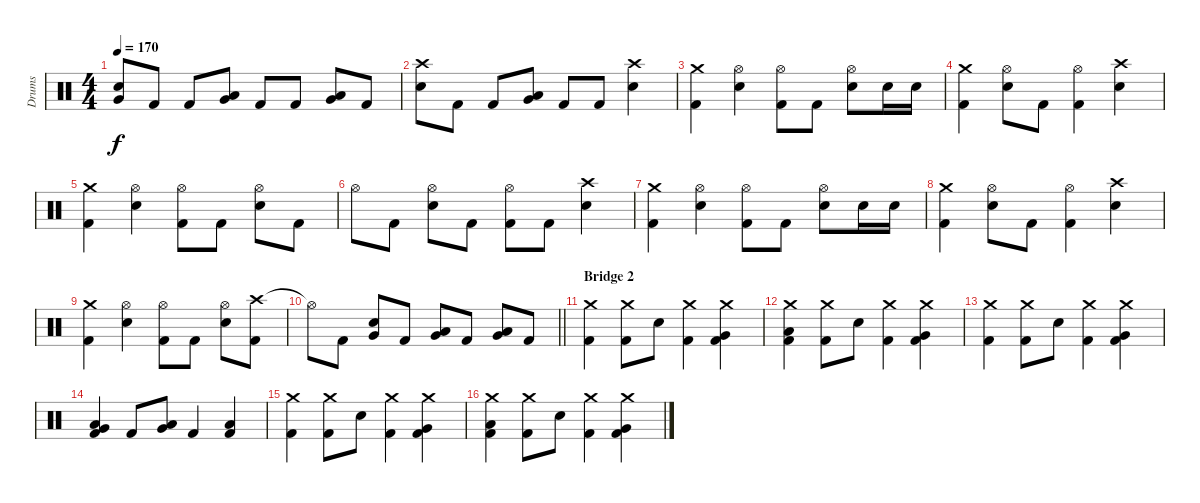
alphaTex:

\track ("Drums" "Drums") {instrument percussion}
\staff {score}
\articulation defaults
\ts (4 4)
\tempo 170
\clef neutral
\ks c
("Very Low Tom (hit)" "Electric Snare (hit)").8{dy f} "Kick (hit) 2".8 "Kick (hit) 2".8 ("Very Low Tom (hit)" "Low Tom (hit)").8 "Kick (hit) 2".8 "Kick (hit) 2".8 ("Very Low Tom (hit)" "Low Floor Tom (hit)").8 "Kick (hit) 2".8 |
("Crash high (hit)" "Electric Snare (hit)").8 "Kick (hit) 2".8 "Kick (hit) 2".8 ("Very Low Tom (hit)" "Low Tom (hit)").8 "Kick (hit) 2".8 "Kick (hit) 2".8 ("Crash high (hit)" "Electric Snare (hit)").4 |
("Crash medium (hit)" "Kick (hit) 2").4 ("Hi-Hat (open)" "Electric Snare (hit)").4 ("Hi-Hat (open)" "Kick (hit) 2").8 "Kick (hit) 2".8 ("Hi-Hat (open)" "Electric Snare (hit)").8 "Electric Snare (hit)".16 "Electric Snare (hit)".16 |
("Crash medium (hit)" "Kick (hit) 2").4 ("Hi-Hat (open)" "Electric Snare (hit)").8 "Kick (hit) 2".8 ("Hi-Hat (open)" "Kick (hit) 2").4 ("Crash high (hit)" "Electric Snare (hit)").4 |
("Crash medium (hit)" "Kick (hit) 2").4 ("Hi-Hat (open)" "Electric Snare (hit)").4 ("Hi-Hat (open)" "Kick (hit) 2").8 "Kick (hit) 2".8 ("Hi-Hat (open)" "Electric Snare (hit)").8 "Kick (hit) 2".8 |
"Hi-Hat (open)".8 "Kick (hit) 2".8 ("Hi-Hat (open)" "Electric Snare (hit)").8 "Kick (hit) 2".8 ("Hi-Hat (open)" "Kick (hit) 2").8 "Kick (hit) 2".8 ("Crash high (hit)" "Electric Snare (hit)").4 |
("Crash medium (hit)" "Kick (hit) 2").4 ("Hi-Hat (open)" "Electric Snare (hit)").4 ("Hi-Hat (open)" "Kick (hit) 2").8 "Kick (hit) 2".8 ("Hi-Hat (open)" "Electric Snare (hit)").8 "Electric Snare (hit)".16 "Electric Snare (hit)".16 |
("Crash medium (hit)" "Kick (hit) 2").4 ("Hi-Hat (open)" "Electric Snare (hit)").8 "Kick (hit) 2".8 ("Hi-Hat (open)" "Kick (hit) 2").4 ("Crash high (hit)" "Electric Snare (hit)").4 |
("Crash medium (hit)" "Kick (hit) 2").4 ("Hi-Hat (open)" "Electric Snare (hit)").4 ("Hi-Hat (open)" "Kick (hit) 2").8 "Kick (hit) 2".8 ("Hi-Hat (open)" "Electric Snare (hit)").8 ("Crash high (hit)" "Kick (hit) 2").8 |
\barLineRight lightlight "Hi-Hat (open)"{t}.8 "Kick (hit) 2".8
("Very Low Tom (hit)" "Electric Snare (hit)").8 "Kick (hit) 2".8 ("Low Tom (hit)" "Very Low Tom (hit)").8 "Kick (hit) 2".8 ("Low Floor Tom (hit)" "Very Low Tom (hit)").8 "Kick (hit) 2".8 |
\section ("" "Bridge 2")
("Crash medium (hit)" "Kick (hit) 2").4 ("Crash medium (hit)" "Kick (hit) 2").8 "Electric Snare (hit)".8 ("Crash medium (hit)" "Kick (hit) 2").4 ("Crash medium (hit)" "Very Low Tom (hit)" "Kick (hit) 2").4 |
("Crash medium (hit)" "Low Floor Tom (hit)" "Kick (hit) 2").4 ("Crash medium (hit)" "Kick (hit) 2").8 "Electric Snare (hit)".8 ("Crash medium (hit)" "Kick (hit) 2").4 ("Crash medium (hit)" "Very Low Tom (hit)" "Kick (hit) 2").4 |
("Crash medium (hit)" "Kick (hit) 2").4 ("Crash medium (hit)" "Kick (hit) 2").8 "Electric Snare (hit)".8 ("Crash medium (hit)" "Kick (hit) 2").4 ("Crash medium (hit)" "Very Low Tom (hit)" "Kick (hit) 2").4 |
("Low Tom (hit)" "Very Low Tom (hit)" "Kick (hit) 2").4 "Kick (hit) 2".8 ("Low Floor Tom (hit)" "Very Low Tom (hit)").8 "Kick (hit) 2".4 ("Low Floor Tom (hit)" "Kick (hit) 2").4 |
("Crash medium (hit)" "Kick (hit) 2").4 ("Crash medium (hit)" "Kick (hit) 2").8 "Electric Snare (hit)".8 ("Crash medium (hit)" "Kick (hit) 2").4 ("Crash medium (hit)" "Very Low Tom (hit)" "Kick (hit) 2").4 |
("Crash medium (hit)" "Low Floor Tom (hit)" "Kick (hit) 2").4 ("Crash medium (hit)" "Kick (hit) 2").8 "Electric Snare (hit)".8 ("Crash medium (hit)" "Kick (hit) 2").4 ("Crash medium (hit)" "Very Low Tom (hit)" "Kick (hit) 2").4
